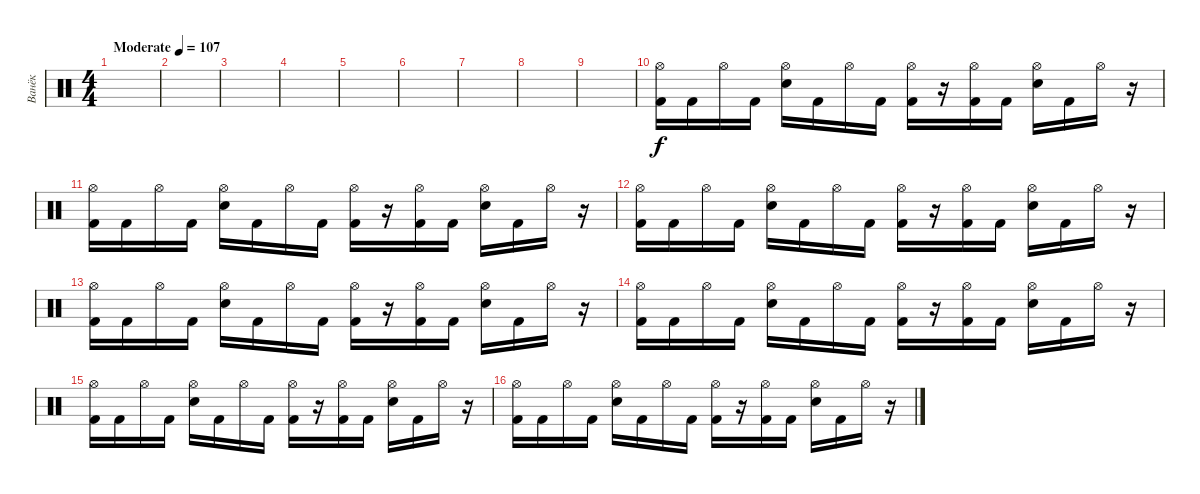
\track ("Ванёк" "Ванёк") {instrument percussion}
\staff {score}
\articulation defaults
\ts (4 4)
\tempo (107 "Moderate")
\clef neutral
\ks c
|
|
|
|
|
|
|
|
|
("Hi-Hat (open)" "Kick (hit) 2").16 "Kick (hit) 2".16 "Hi-Hat (open)".16 "Kick (hit) 2".16 ("Hi-Hat (open)" "Electric Snare (hit)").16 "Kick (hit) 2".16 "Hi-Hat (open)".16 "Kick (hit) 2".16 ("Hi-Hat (open)" "Kick (hit) 2").16 r.16 ("Hi-Hat (open)" "Kick (hit) 2").16 "Kick (hit) 2".16 ("Hi-Hat (open)" "Electric Snare (hit)").16 "Kick (hit) 2".16 "Hi-Hat (open)".16 r.16 |
("Hi-Hat (open)" "Kick (hit) 2").16 "Kick (hit) 2".16 "Hi-Hat (open)".16 "Kick (hit) 2".16 ("Hi-Hat (open)" "Electric Snare (hit)").16 "Kick (hit) 2".16 "Hi-Hat (open)".16 "Kick (hit) 2".16 ("Hi-Hat (open)" "Kick (hit) 2").16 r.16 ("Hi-Hat (open)" "Kick (hit) 2").16 "Kick (hit) 2".16 ("Hi-Hat (open)" "Electric Snare (hit)").16 "Kick (hit) 2".16 "Hi-Hat (open)".16 r.16 |
("Hi-Hat (open)" "Kick (hit) 2").16 "Kick (hit) 2".16 "Hi-Hat (open)".16 "Kick (hit) 2".16 ("Hi-Hat (open)" "Electric Snare (hit)").16 "Kick (hit) 2".16 "Hi-Hat (open)".16 "Kick (hit) 2".16 ("Hi-Hat (open)" "Kick (hit) 2").16 r.16 ("Hi-Hat (open)" "Kick (hit) 2").16 "Kick (hit) 2".16 ("Hi-Hat (open)" "Electric Snare (hit)").16 "Kick (hit) 2".16 "Hi-Hat (open)".16 r.16 |
("Hi-Hat (open)" "Kick (hit) 2").16 "Kick (hit) 2".16 "Hi-Hat (open)".16 "Kick (hit) 2".16 ("Hi-Hat (open)" "Electric Snare (hit)").16 "Kick (hit) 2".16 "Hi-Hat (open)".16 "Kick (hit) 2".16 ("Hi-Hat (open)" "Kick (hit) 2").16 r.16 ("Hi-Hat (open)" "Kick (hit) 2").16 "Kick (hit) 2".16 ("Hi-Hat (open)" "Electric Snare (hit)").16 "Kick (hit) 2".16 "Hi-Hat (open)".16 r.16 |
("Hi-Hat (open)" "Kick (hit) 2").16 "Kick (hit) 2".16 "Hi-Hat (open)".16 "Kick (hit) 2".16 ("Hi-Hat (open)" "Electric Snare (hit)").16 "Kick (hit) 2".16 "Hi-Hat (open)".16 "Kick (hit) 2".16 ("Hi-Hat (open)" "Kick (hit) 2").16 r.16 ("Hi-Hat (open)" "Kick (hit) 2").16 "Kick (hit) 2".16 ("Hi-Hat (open)" "Electric Snare (hit)").16 "Kick (hit) 2".16 "Hi-Hat (open)".16 r.16 |
("Hi-Hat (open)" "Kick (hit) 2").16 "Kick (hit) 2".16 "Hi-Hat (open)".16 "Kick (hit) 2".16 ("Hi-Hat (open)" "Electric Snare (hit)").16 "Kick (hit) 2".16 "Hi-Hat (open)".16 "Kick (hit) 2".16 ("Hi-Hat (open)" "Kick (hit) 2").16 r.16 ("Hi-Hat (open)" "Kick (hit) 2").16 "Kick (hit) 2".16 ("Hi-Hat (open)" "Electric Snare (hit)").16 "Kick (hit) 2".16 "Hi-Hat (open)".16 r.16 |
("Hi-Hat (open)" "Kick (hit) 2").16 "Kick (hit) 2".16 "Hi-Hat (open)".16 "Kick (hit) 2".16 ("Hi-Hat (open)" "Electric Snare (hit)").16 "Kick (hit) 2".16 "Hi-Hat (open)".16 "Kick (hit) 2".16 ("Hi-Hat (open)" "Kick (hit) 2").16 r.16 ("Hi-Hat (open)" "Kick (hit) 2").16 "Kick (hit) 2".16 ("Hi-Hat (open)" "Electric Snare (hit)").16 "Kick (hit) 2".16 "Hi-Hat (open)".16 r.16
